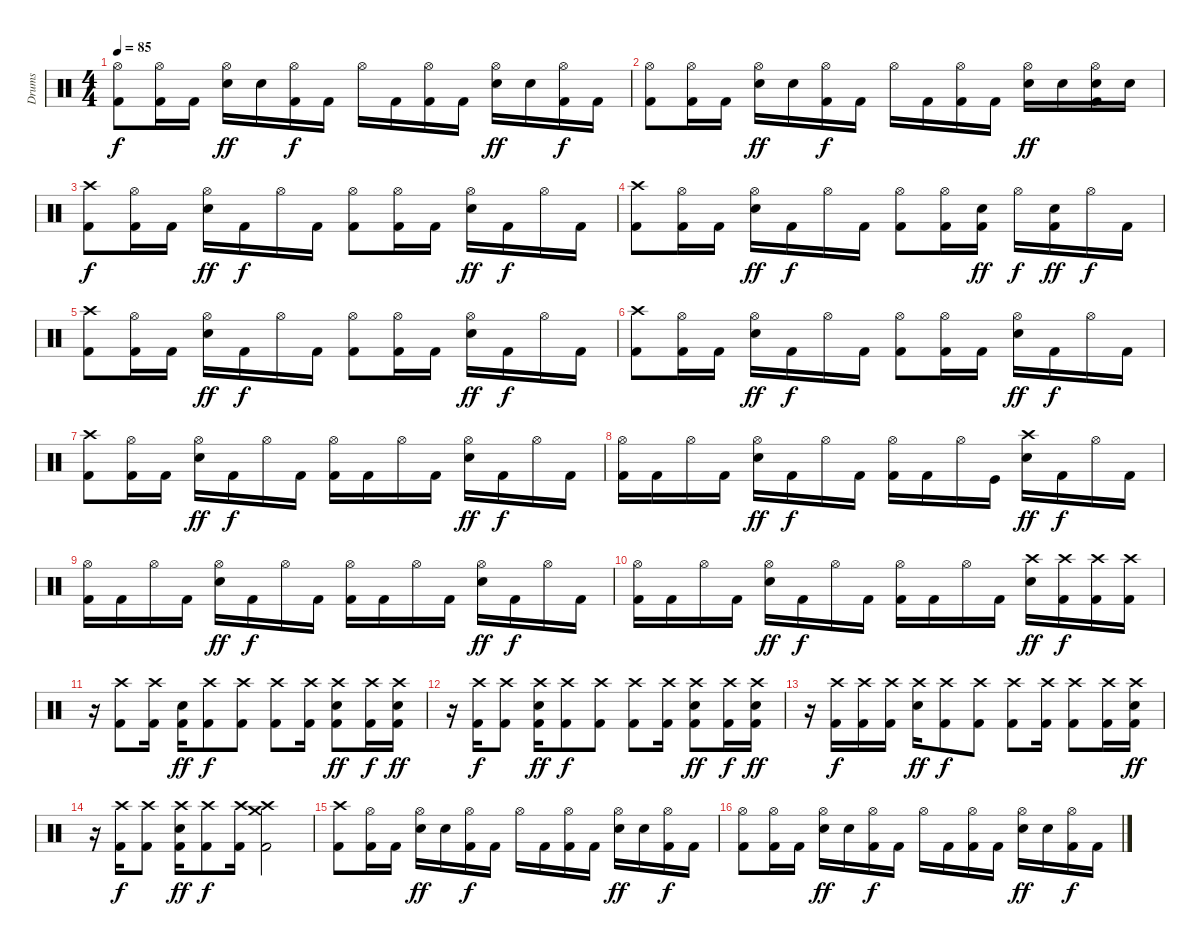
\track ("Drums" "Drums") {instrument percussion}
\staff {score}
\articulation defaults
\ts (4 4)
\tempo 85
\clef neutral
\ks c
("Hi-Hat (open)" "Kick (hit) 2").8{dy f} ("Hi-Hat (open)" "Kick (hit) 2").16 "Kick (hit) 2".16 ("Hi-Hat (open)" "Electric Snare (hit)").16{dy ff} "Electric Snare (hit)".16 ("Hi-Hat (open)" "Kick (hit) 2").16{dy f} "Kick (hit) 2".16 "Hi-Hat (open)".16 "Kick (hit) 2".16 ("Hi-Hat (open)" "Kick (hit) 2").16 "Kick (hit) 2".16 ("Hi-Hat (open)" "Electric Snare (hit)").16{dy ff} "Electric Snare (hit)".16 ("Hi-Hat (open)" "Kick (hit) 2").16{dy f} "Kick (hit) 2".16 |
("Hi-Hat (open)" "Kick (hit) 2").8 ("Hi-Hat (open)" "Kick (hit) 2").16 "Kick (hit) 2".16 ("Hi-Hat (open)" "Electric Snare (hit)").16{dy ff} "Electric Snare (hit)".16 ("Hi-Hat (open)" "Kick (hit) 2").16{dy f} "Kick (hit) 2".16 "Hi-Hat (open)".16 "Kick (hit) 2".16 ("Hi-Hat (open)" "Kick (hit) 2").16 "Kick (hit) 2".16 ("Hi-Hat (open)" "Electric Snare (hit)").16{dy ff} "Electric Snare (hit)".16 ("Hi-Hat (open)" "Electric Snare (hit)" "Kick (hit) 2").16 "Electric Snare (hit)".16 |
("Crash high (hit)" "Kick (hit) 2").8{dy f} ("Hi-Hat (open)" "Kick (hit) 2").16 "Kick (hit) 2".16 ("Hi-Hat (open)" "Electric Snare (hit)").16{dy ff} "Kick (hit) 2".16{dy f} "Hi-Hat (open)".16 "Kick (hit) 2".16 ("Hi-Hat (open)" "Kick (hit) 2").8 ("Hi-Hat (open)" "Kick (hit) 2").16 "Kick (hit) 2".16 ("Hi-Hat (open)" "Electric Snare (hit)").16{dy ff} "Kick (hit) 2".16{dy f} "Hi-Hat (open)".16 "Kick (hit) 2".16 |
("Crash high (hit)" "Kick (hit) 2").8 ("Hi-Hat (open)" "Kick (hit) 2").16 "Kick (hit) 2".16 ("Hi-Hat (open)" "Electric Snare (hit)").16{dy ff} "Kick (hit) 2".16{dy f} "Hi-Hat (open)".16 "Kick (hit) 2".16 ("Hi-Hat (open)" "Kick (hit) 2").8 ("Hi-Hat (open)" "Kick (hit) 2").16 ("Electric Snare (hit)" "Kick (hit) 2").16{dy ff} "Hi-Hat (open)".16{dy f} ("Electric Snare (hit)" "Kick (hit) 2").16{dy ff} "Hi-Hat (open)".16{dy f} "Kick (hit) 2".16 |
("Crash high (hit)" "Kick (hit) 2").8 ("Hi-Hat (open)" "Kick (hit) 2").16 "Kick (hit) 2".16 ("Hi-Hat (open)" "Electric Snare (hit)").16{dy ff} "Kick (hit) 2".16{dy f} "Hi-Hat (open)".16 "Kick (hit) 2".16 ("Hi-Hat (open)" "Kick (hit) 2").8 ("Hi-Hat (open)" "Kick (hit) 2").16 "Kick (hit) 2".16 ("Hi-Hat (open)" "Electric Snare (hit)").16{dy ff} "Kick (hit) 2".16{dy f} "Hi-Hat (open)".16 "Kick (hit) 2".16 |
("Crash high (hit)" "Kick (hit) 2").8 ("Hi-Hat (open)" "Kick (hit) 2").16 "Kick (hit) 2".16 ("Hi-Hat (open)" "Electric Snare (hit)").16{dy ff} "Kick (hit) 2".16{dy f} "Hi-Hat (open)".16 "Kick (hit) 2".16 ("Hi-Hat (open)" "Kick (hit) 2").8 ("Hi-Hat (open)" "Kick (hit) 2").16 "Kick (hit) 2".16 ("Hi-Hat (open)" "Electric Snare (hit)").16{dy ff} "Kick (hit) 2".16{dy f} "Hi-Hat (open)".16 "Kick (hit) 2".16 |
("Crash high (hit)" "Kick (hit) 2").8 ("Hi-Hat (open)" "Kick (hit) 2").16 "Kick (hit) 2".16 ("Hi-Hat (open)" "Electric Snare (hit)").16{dy ff} "Kick (hit) 2".16{dy f} "Hi-Hat (open)".16 "Kick (hit) 2".16 ("Hi-Hat (open)" "Kick (hit) 2").16 "Kick (hit) 2".16 "Hi-Hat (open)".16 "Kick (hit) 2".16 ("Hi-Hat (open)" "Electric Snare (hit)").16{dy ff} "Kick (hit) 2".16{dy f} "Hi-Hat (open)".16 "Kick (hit) 2".16 |
("Hi-Hat (open)" "Kick (hit) 2").16 "Kick (hit) 2".16 "Hi-Hat (open)".16 "Kick (hit) 2".16 ("Hi-Hat (open)" "Electric Snare (hit)").16{dy ff} "Kick (hit) 2".16{dy f} "Hi-Hat (open)".16 "Kick (hit) 2".16 ("Hi-Hat (open)" "Kick (hit) 2").16 "Kick (hit) 2".16 "Hi-Hat (open)".16 "Kick (hit)".16 ("Crash high (hit)" "Electric Snare (hit)").16{dy ff} "Kick (hit) 2".16{dy f} "Hi-Hat (open)".16 "Kick (hit) 2".16 |
("Hi-Hat (open)" "Kick (hit) 2").16 "Kick (hit) 2".16 "Hi-Hat (open)".16 "Kick (hit) 2".16 ("Hi-Hat (open)" "Electric Snare (hit)").16{dy ff} "Kick (hit) 2".16{dy f} "Hi-Hat (open)".16 "Kick (hit) 2".16 ("Hi-Hat (open)" "Kick (hit) 2").16 "Kick (hit) 2".16 "Hi-Hat (open)".16 "Kick (hit) 2".16 ("Hi-Hat (open)" "Electric Snare (hit)").16{dy ff} "Kick (hit) 2".16{dy f} "Hi-Hat (open)".16 "Kick (hit) 2".16 |
("Hi-Hat (open)" "Kick (hit) 2").16 "Kick (hit) 2".16 "Hi-Hat (open)".16 "Kick (hit) 2".16 ("Hi-Hat (open)" "Electric Snare (hit)").16{dy ff} "Kick (hit) 2".16{dy f} "Hi-Hat (open)".16 "Kick (hit) 2".16 ("Hi-Hat (open)" "Kick (hit) 2").16 "Kick (hit) 2".16 "Hi-Hat (open)".16 "Kick (hit) 2".16 ("Crash high (hit)" "Electric Snare (hit)").16{dy ff} ("Crash high (hit)" "Kick (hit) 2").16{dy f} ("Crash high (hit)" "Kick (hit) 2").16 ("Crash high (hit)" "Kick (hit) 2").16 |
r.16 ("Crash high (hit)" "Kick (hit) 2").8 ("Crash high (hit)" "Kick (hit) 2").16 ("Electric Snare (hit)" "Kick (hit) 2").16{dy ff} ("Crash high (hit)" "Kick (hit) 2").8{dy f} ("Crash high (hit)" "Kick (hit) 2").8 ("Crash high (hit)" "Kick (hit) 2").8 ("Crash high (hit)" "Kick (hit) 2").16 ("Crash high (hit)" "Electric Snare (hit)" "Kick (hit) 2").8{dy ff} ("Crash high (hit)" "Kick (hit) 2").16{dy f} ("Crash high (hit)" "Electric Snare (hit)" "Kick (hit) 2").16{dy ff} |
r.16 ("Crash high (hit)" "Kick (hit) 2").16{dy f} ("Crash high (hit)" "Kick (hit) 2").8 ("Crash high (hit)" "Electric Snare (hit)" "Kick (hit) 2").16{dy ff} ("Crash high (hit)" "Kick (hit) 2").8{dy f} ("Crash high (hit)" "Kick (hit) 2").8 ("Crash high (hit)" "Kick (hit) 2").8 ("Crash high (hit)" "Kick (hit) 2").16 ("Crash high (hit)" "Electric Snare (hit)" "Kick (hit) 2").8{dy ff} ("Crash high (hit)" "Kick (hit) 2").16{dy f} ("Crash high (hit)" "Electric Snare (hit)" "Kick (hit) 2").16{dy ff} |
r.16 ("Crash high (hit)" "Kick (hit) 2").16{dy f} ("Crash high (hit)" "Kick (hit) 2").16 ("Crash high (hit)" "Kick (hit) 2").16 ("Crash high (hit)" "Electric Snare (hit)").16{dy ff} ("Crash high (hit)" "Kick (hit) 2").8{dy f} ("Crash high (hit)" "Kick (hit) 2").8 ("Crash high (hit)" "Kick (hit) 2").8 ("Crash high (hit)" "Kick (hit) 2").16 ("Crash high (hit)" "Kick (hit) 2").8 ("Crash high (hit)" "Kick (hit) 2").16 ("Crash high (hit)" "Electric Snare (hit)" "Kick (hit) 2").16{dy ff} |
r.16 ("Crash high (hit)" "Kick (hit) 2").16{dy f} ("Crash high (hit)" "Kick (hit) 2").8 ("Crash high (hit)" "Electric Snare (hit)" "Kick (hit) 2").16{dy ff} ("Crash high (hit)" "Kick (hit) 2").8{dy f} ("Crash high (hit)" "Kick (hit) 2").16 ("Crash high (hit)" "Crash medium (hit)" "Kick (hit) 2").2 |
("Crash high (hit)" "Kick (hit) 2").8 ("Hi-Hat (open)" "Kick (hit) 2").16 "Kick (hit) 2".16 ("Hi-Hat (open)" "Electric Snare (hit)").16{dy ff} "Electric Snare (hit)".16 ("Hi-Hat (open)" "Kick (hit) 2").16{dy f} "Kick (hit) 2".16 "Hi-Hat (open)".16 "Kick (hit) 2".16 ("Hi-Hat (open)" "Kick (hit) 2").16 "Kick (hit) 2".16 ("Hi-Hat (open)" "Electric Snare (hit)").16{dy ff} "Electric Snare (hit)".16 ("Hi-Hat (open)" "Kick (hit) 2").16{dy f} "Kick (hit) 2".16 |
("Hi-Hat (open)" "Kick (hit) 2").8 ("Hi-Hat (open)" "Kick (hit) 2").16 "Kick (hit) 2".16 ("Hi-Hat (open)" "Electric Snare (hit)").16{dy ff} "Electric Snare (hit)".16 ("Hi-Hat (open)" "Kick (hit) 2").16{dy f} "Kick (hit) 2".16 "Hi-Hat (open)".16 "Kick (hit) 2".16 ("Hi-Hat (open)" "Kick (hit) 2").16 "Kick (hit) 2".16 ("Hi-Hat (open)" "Electric Snare (hit)").16{dy ff} "Electric Snare (hit)".16 ("Hi-Hat (open)" "Kick (hit) 2").16{dy f} "Kick (hit) 2".16
